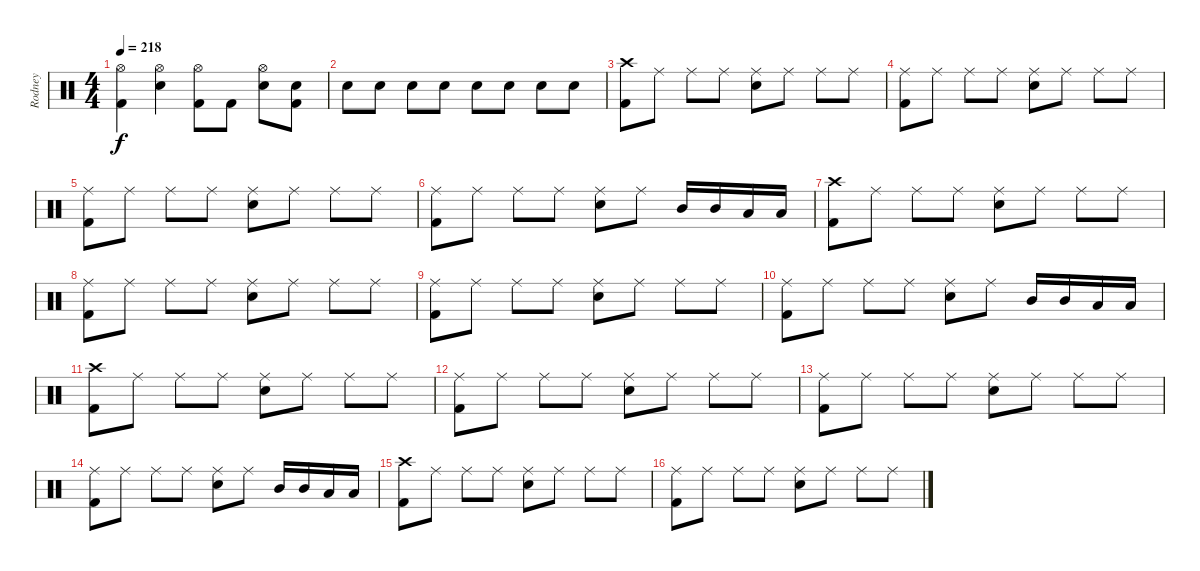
\track ("Rodney" "Rodney") {instrument percussion}
\staff {score}
\articulation defaults
\ts (4 4)
\tempo 218
\clef neutral
\ks c
("Hi-Hat (open)" "Kick (hit) 2").4{dy f} ("Hi-Hat (open)" "Snare (hit) 2").4 ("Hi-Hat (open)" "Kick (hit) 2").8 "Kick (hit) 2".8 ("Hi-Hat (open)" "Snare (hit) 2").8 ("Snare (hit) 2" "Kick (hit) 2").8 |
"Snare (hit) 2".8 "Snare (hit) 2".8 "Snare (hit) 2".8 "Snare (hit) 2".8 "Snare (hit) 2".8 "Snare (hit) 2".8 "Snare (hit) 2".8 "Snare (hit) 2".8 |
("Crash high (hit)" "Kick (hit) 2").8 "Ride (middle)".8 "Ride (middle)".8 "Ride (middle)".8 ("Ride (middle)" "Snare (hit) 2").8 "Ride (middle)".8 "Ride (middle)".8 "Ride (middle)".8 |
("Ride (middle)" "Kick (hit) 2").8 "Ride (middle)".8 "Ride (middle)".8 "Ride (middle)".8 ("Ride (middle)" "Snare (hit) 2").8 "Ride (middle)".8 "Ride (middle)".8 "Ride (middle)".8 |
("Ride (middle)" "Kick (hit) 2").8 "Ride (middle)".8 "Ride (middle)".8 "Ride (middle)".8 ("Ride (middle)" "Snare (hit) 2").8 "Ride (middle)".8 "Ride (middle)".8 "Ride (middle)".8 |
("Ride (middle)" "Kick (hit) 2").8 "Ride (middle)".8 "Ride (middle)".8 "Ride (middle)".8 ("Ride (middle)" "Snare (hit) 2").8 "Ride (middle)".8 "Mid Tom (hit)".16 "Mid Tom (hit)".16 "Low Tom (hit)".16 "Low Tom (hit)".16 |
("Crash high (hit)" "Kick (hit) 2").8 "Ride (middle)".8 "Ride (middle)".8 "Ride (middle)".8 ("Ride (middle)" "Snare (hit) 2").8 "Ride (middle)".8 "Ride (middle)".8 "Ride (middle)".8 |
("Ride (middle)" "Kick (hit) 2").8 "Ride (middle)".8 "Ride (middle)".8 "Ride (middle)".8 ("Ride (middle)" "Snare (hit) 2").8 "Ride (middle)".8 "Ride (middle)".8 "Ride (middle)".8 |
("Ride (middle)" "Kick (hit) 2").8 "Ride (middle)".8 "Ride (middle)".8 "Ride (middle)".8 ("Ride (middle)" "Snare (hit) 2").8 "Ride (middle)".8 "Ride (middle)".8 "Ride (middle)".8 |
("Ride (middle)" "Kick (hit) 2").8 "Ride (middle)".8 "Ride (middle)".8 "Ride (middle)".8 ("Ride (middle)" "Snare (hit) 2").8 "Ride (middle)".8 "Mid Tom (hit)".16 "Mid Tom (hit)".16 "Low Tom (hit)".16 "Low Tom (hit)".16 |
("Crash high (hit)" "Kick (hit) 2").8 "Ride (middle)".8 "Ride (middle)".8 "Ride (middle)".8 ("Ride (middle)" "Snare (hit) 2").8 "Ride (middle)".8 "Ride (middle)".8 "Ride (middle)".8 |
("Ride (middle)" "Kick (hit) 2").8 "Ride (middle)".8 "Ride (middle)".8 "Ride (middle)".8 ("Ride (middle)" "Snare (hit) 2").8 "Ride (middle)".8 "Ride (middle)".8 "Ride (middle)".8 |
("Ride (middle)" "Kick (hit) 2").8 "Ride (middle)".8 "Ride (middle)".8 "Ride (middle)".8 ("Ride (middle)" "Snare (hit) 2").8 "Ride (middle)".8 "Ride (middle)".8 "Ride (middle)".8 |
("Ride (middle)" "Kick (hit) 2").8 "Ride (middle)".8 "Ride (middle)".8 "Ride (middle)".8 ("Ride (middle)" "Snare (hit) 2").8 "Ride (middle)".8 "Mid Tom (hit)".16 "Mid Tom (hit)".16 "Low Tom (hit)".16 "Low Tom (hit)".16 |
("Crash high (hit)" "Kick (hit) 2").8 "Ride (middle)".8 "Ride (middle)".8 "Ride (middle)".8 ("Ride (middle)" "Snare (hit) 2").8 "Ride (middle)".8 "Ride (middle)".8 "Ride (middle)".8 |
("Ride (middle)" "Kick (hit) 2").8 "Ride (middle)".8 "Ride (middle)".8 "Ride (middle)".8 ("Ride (middle)" "Snare (hit) 2").8 "Ride (middle)".8 "Ride (middle)".8 "Ride (middle)".8
